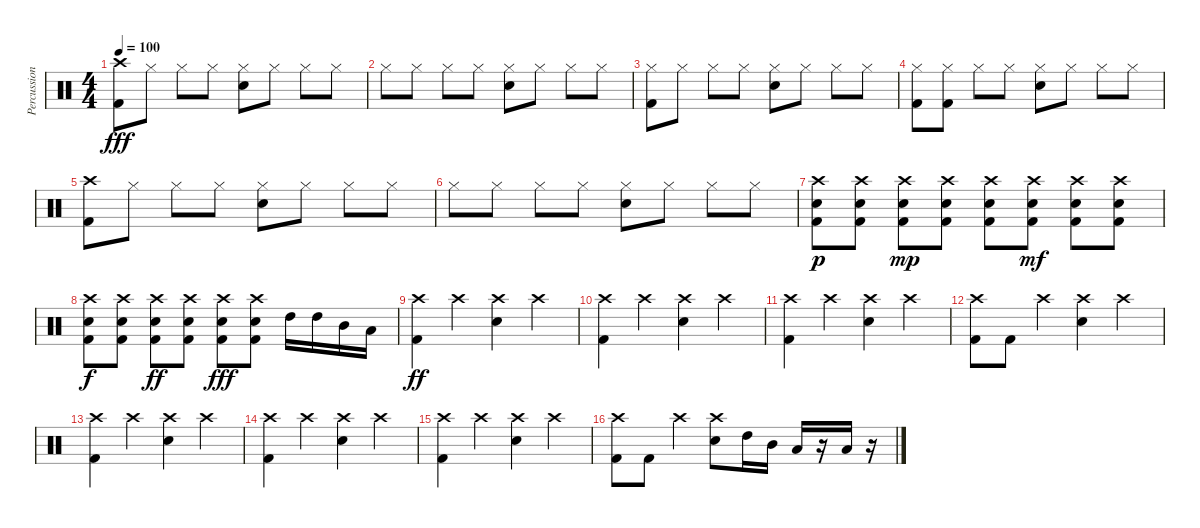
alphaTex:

\track ("Percussion" "Percussion") {instrument percussion}
\staff {score}
\articulation defaults
\ts (4 4)
\tempo 100
\clef neutral
\ks c
("Crash high (hit)" "Kick (hit) 2").8{dy fff} "Hi-Hat (closed)".8 "Hi-Hat (closed)".8 "Hi-Hat (closed)".8 ("Hi-Hat (closed)" "Electric Snare (hit)").8 "Hi-Hat (closed)".8 "Hi-Hat (closed)".8 "Hi-Hat (closed)".8 |
"Hi-Hat (closed)".8 "Hi-Hat (closed)".8 "Hi-Hat (closed)".8 "Hi-Hat (closed)".8 ("Hi-Hat (closed)" "Electric Snare (hit)").8 "Hi-Hat (closed)".8 "Hi-Hat (closed)".8 "Hi-Hat (closed)".8 |
("Hi-Hat (closed)" "Kick (hit) 2").8 "Hi-Hat (closed)".8 "Hi-Hat (closed)".8 "Hi-Hat (closed)".8 ("Hi-Hat (closed)" "Electric Snare (hit)").8 "Hi-Hat (closed)".8 "Hi-Hat (closed)".8 "Hi-Hat (closed)".8 |
("Hi-Hat (closed)" "Kick (hit) 2").8 ("Hi-Hat (closed)" "Kick (hit) 2").8 "Hi-Hat (closed)".8 "Hi-Hat (closed)".8 ("Hi-Hat (closed)" "Electric Snare (hit)").8 "Hi-Hat (closed)".8 "Hi-Hat (closed)".8 "Hi-Hat (closed)".8 |
("Crash high (hit)" "Kick (hit) 2").8 "Hi-Hat (closed)".8 "Hi-Hat (closed)".8 "Hi-Hat (closed)".8 ("Hi-Hat (closed)" "Electric Snare (hit)").8 "Hi-Hat (closed)".8 "Hi-Hat (closed)".8 "Hi-Hat (closed)".8 |
"Hi-Hat (closed)".8 "Hi-Hat (closed)".8 "Hi-Hat (closed)".8 "Hi-Hat (closed)".8 ("Hi-Hat (closed)" "Electric Snare (hit)").8 "Hi-Hat (closed)".8 "Hi-Hat (closed)".8 "Hi-Hat (closed)".8 |
("Crash high (hit)" "Electric Snare (hit)" "Kick (hit) 2").8{dy p} ("Crash high (hit)" "Electric Snare (hit)" "Kick (hit) 2").8 ("Crash high (hit)" "Electric Snare (hit)" "Kick (hit) 2").8{dy mp} ("Crash high (hit)" "Electric Snare (hit)" "Kick (hit) 2").8 ("Crash high (hit)" "Electric Snare (hit)" "Kick (hit) 2").8 ("Crash high (hit)" "Electric Snare (hit)" "Kick (hit) 2").8{dy mf} ("Crash high (hit)" "Electric Snare (hit)" "Kick (hit) 2").8 ("Crash high (hit)" "Electric Snare (hit)" "Kick (hit) 2").8 |
("Crash high (hit)" "Electric Snare (hit)" "Kick (hit) 2").8{dy f} ("Crash high (hit)" "Electric Snare (hit)" "Kick (hit) 2").8 ("Crash high (hit)" "Electric Snare (hit)" "Kick (hit) 2").8{dy ff} ("Crash high (hit)" "Electric Snare (hit)" "Kick (hit) 2").8 ("Crash high (hit)" "Electric Snare (hit)" "Kick (hit) 2").8{dy fff} ("Crash high (hit)" "Electric Snare (hit)" "Kick (hit) 2").8 "High Tom (hit)".16 "High Tom (hit)".16 "Mid Tom (hit)".16 "Low Tom (hit)".16 |
("Crash high (hit)" "Kick (hit) 2").4{dy ff} "Crash high (hit)".4 ("Crash high (hit)" "Electric Snare (hit)").4 "Crash high (hit)".4 |
("Crash high (hit)" "Kick (hit) 2").4 "Crash high (hit)".4 ("Crash high (hit)" "Electric Snare (hit)").4 "Crash high (hit)".4 |
("Crash high (hit)" "Kick (hit) 2").4 "Crash high (hit)".4 ("Crash high (hit)" "Electric Snare (hit)").4 "Crash high (hit)".4 |
("Crash high (hit)" "Kick (hit) 2").8 "Kick (hit) 2".8 "Crash high (hit)".4 ("Crash high (hit)" "Electric Snare (hit)").4 "Crash high (hit)".4 |
("Crash high (hit)" "Kick (hit) 2").4 "Crash high (hit)".4 ("Crash high (hit)" "Electric Snare (hit)").4 "Crash high (hit)".4 |
("Crash high (hit)" "Kick (hit) 2").4 "Crash high (hit)".4 ("Crash high (hit)" "Electric Snare (hit)").4 "Crash high (hit)".4 |
("Crash high (hit)" "Kick (hit) 2").4 "Crash high (hit)".4 ("Crash high (hit)" "Electric Snare (hit)").4 "Crash high (hit)".4 |
("Crash high (hit)" "Kick (hit) 2").8 "Kick (hit) 2".8 "Crash high (hit)".4 ("Crash high (hit)" "Electric Snare (hit)").8 "High Tom (hit)".16 "Mid Tom (hit)".16 "Low Tom (hit)".16 r.16 "Low Tom (hit)".16 r.16
